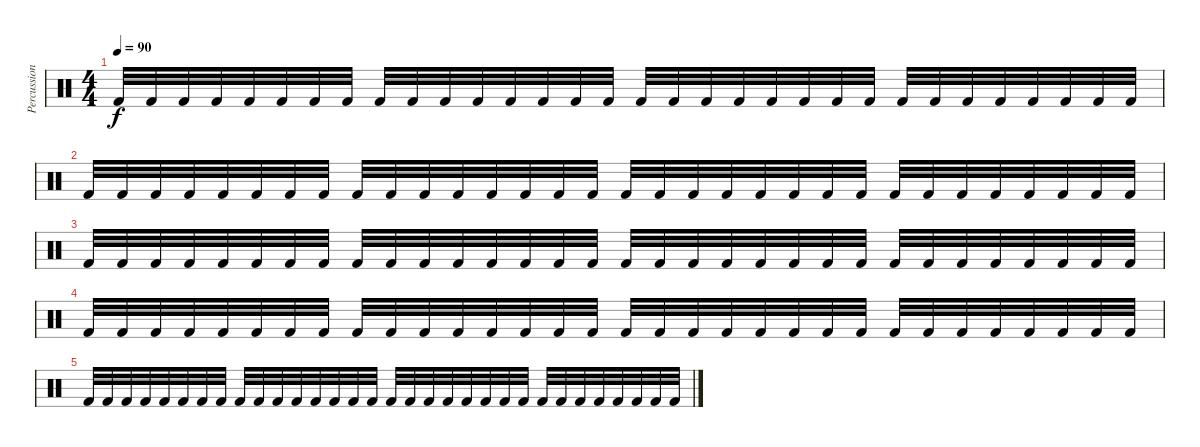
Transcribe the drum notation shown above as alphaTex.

\track ("Percussion" "Percussion") {instrument percussion}
\staff {score}
\articulation defaults
\ts (4 4)
\tempo 90
\clef neutral
\ks c "Kick (hit) 2".32{dy f} "Kick (hit) 2".32 "Kick (hit) 2".32 "Kick (hit) 2".32 "Kick (hit) 2".32 "Kick (hit) 2".32 "Kick (hit) 2".32 "Kick (hit) 2".32 "Kick (hit) 2".32 "Kick (hit) 2".32 "Kick (hit) 2".32 "Kick (hit) 2".32 "Kick (hit) 2".32 "Kick (hit) 2".32 "Kick (hit) 2".32 "Kick (hit) 2".32 "Kick (hit) 2".32 "Kick (hit) 2".32 "Kick (hit) 2".32 "Kick (hit) 2".32 "Kick (hit) 2".32 "Kick (hit) 2".32 "Kick (hit) 2".32 "Kick (hit) 2".32 "Kick (hit) 2".32 "Kick (hit) 2".32 "Kick (hit) 2".32 "Kick (hit) 2".32 "Kick (hit) 2".32 "Kick (hit) 2".32 "Kick (hit) 2".32 "Kick (hit) 2".32
|
"Kick (hit) 2".32 "Kick (hit) 2".32 "Kick (hit) 2".32 "Kick (hit) 2".32 "Kick (hit) 2".32 "Kick (hit) 2".32 "Kick (hit) 2".32 "Kick (hit) 2".32 "Kick (hit) 2".32 "Kick (hit) 2".32 "Kick (hit) 2".32 "Kick (hit) 2".32 "Kick (hit) 2".32 "Kick (hit) 2".32 "Kick (hit) 2".32 "Kick (hit) 2".32 "Kick (hit) 2".32 "Kick (hit) 2".32 "Kick (hit) 2".32 "Kick (hit) 2".32 "Kick (hit) 2".32 "Kick (hit) 2".32 "Kick (hit) 2".32 "Kick (hit) 2".32 "Kick (hit) 2".32 "Kick (hit) 2".32 "Kick (hit) 2".32 "Kick (hit) 2".32 "Kick (hit) 2".32 "Kick (hit) 2".32 "Kick (hit) 2".32 "Kick (hit) 2".32 |
"Kick (hit) 2".32 "Kick (hit) 2".32 "Kick (hit) 2".32 "Kick (hit) 2".32 "Kick (hit) 2".32 "Kick (hit) 2".32 "Kick (hit) 2".32 "Kick (hit) 2".32 "Kick (hit) 2".32 "Kick (hit) 2".32 "Kick (hit) 2".32 "Kick (hit) 2".32 "Kick (hit) 2".32 "Kick (hit) 2".32 "Kick (hit) 2".32 "Kick (hit) 2".32 "Kick (hit) 2".32 "Kick (hit) 2".32 "Kick (hit) 2".32 "Kick (hit) 2".32 "Kick (hit) 2".32 "Kick (hit) 2".32 "Kick (hit) 2".32 "Kick (hit) 2".32 "Kick (hit) 2".32 "Kick (hit) 2".32 "Kick (hit) 2".32 "Kick (hit) 2".32 "Kick (hit) 2".32 "Kick (hit) 2".32 "Kick (hit) 2".32 "Kick (hit) 2".32 |
"Kick (hit) 2".32 "Kick (hit) 2".32 "Kick (hit) 2".32 "Kick (hit) 2".32 "Kick (hit) 2".32 "Kick (hit) 2".32 "Kick (hit) 2".32 "Kick (hit) 2".32 "Kick (hit) 2".32 "Kick (hit) 2".32 "Kick (hit) 2".32 "Kick (hit) 2".32 "Kick (hit) 2".32 "Kick (hit) 2".32 "Kick (hit) 2".32 "Kick (hit) 2".32 "Kick (hit) 2".32 "Kick (hit) 2".32 "Kick (hit) 2".32 "Kick (hit) 2".32 "Kick (hit) 2".32 "Kick (hit) 2".32 "Kick (hit) 2".32 "Kick (hit) 2".32 "Kick (hit) 2".32 "Kick (hit) 2".32 "Kick (hit) 2".32 "Kick (hit) 2".32 "Kick (hit) 2".32 "Kick (hit) 2".32 "Kick (hit) 2".32 "Kick (hit) 2".32 |
"Kick (hit) 2".32 "Kick (hit) 2".32 "Kick (hit) 2".32 "Kick (hit) 2".32 "Kick (hit) 2".32 "Kick (hit) 2".32 "Kick (hit) 2".32 "Kick (hit) 2".32 "Kick (hit) 2".32 "Kick (hit) 2".32 "Kick (hit) 2".32 "Kick (hit) 2".32 "Kick (hit) 2".32 "Kick (hit) 2".32 "Kick (hit) 2".32 "Kick (hit) 2".32 "Kick (hit) 2".32 "Kick (hit) 2".32 "Kick (hit) 2".32 "Kick (hit) 2".32 "Kick (hit) 2".32 "Kick (hit) 2".32 "Kick (hit) 2".32 "Kick (hit) 2".32 "Kick (hit) 2".32 "Kick (hit) 2".32 "Kick (hit) 2".32 "Kick (hit) 2".32 "Kick (hit) 2".32 "Kick (hit) 2".32 "Kick (hit) 2".32 "Kick (hit) 2".32
